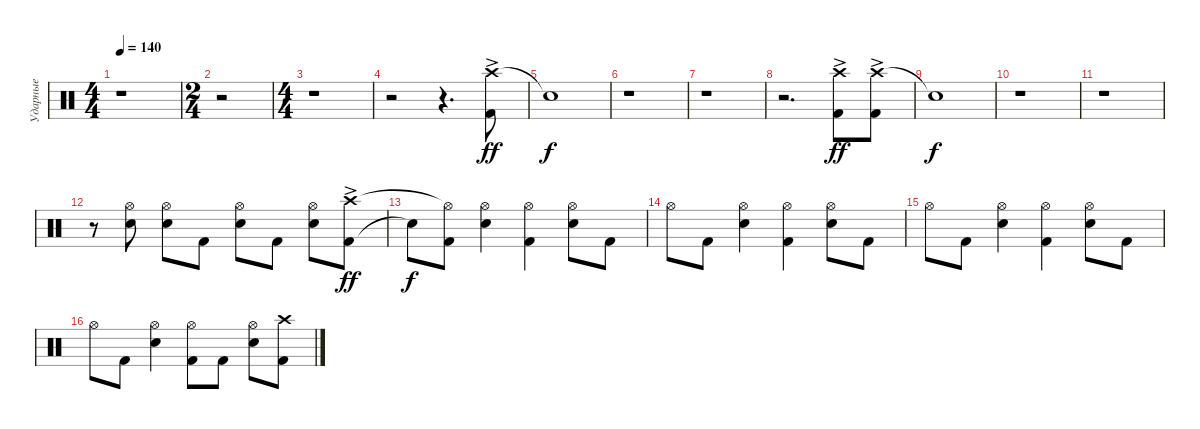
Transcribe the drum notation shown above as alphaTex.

\track ("Ударные" "Ударные") {instrument percussion}
\staff {score}
\articulation defaults
\ts (4 4)
\tempo 140
\clef neutral
\ks c
r.1{dy ff} |
\ts (2 4)
r.2 |
\ts (4 4)
r.1 |
r.2 r.4{d} ("Crash high (hit)"{ac} "Kick (hit) 2"{ac}).8 |
"Snare (hit)"{t}.1{dy f} |
r.1 |
r.1 |
r.2{d} ("Crash high (hit)"{ac} "Kick (hit) 2"{ac}).8{dy ff} ("Crash high (hit)"{ac} "Kick (hit) 2"{ac}).8 |
"Snare (hit)"{t}.1{dy f} |
r.1 |
r.1 |
r.8 ("Snare (hit) 2" "Hi-Hat (open)").8 ("Snare (hit) 2" "Hi-Hat (open)").8 "Kick (hit) 2".8 ("Hi-Hat (open)" "Snare (hit) 2").8 "Kick (hit) 2".8 ("Snare (hit) 2" "Hi-Hat (open)").8 ("Kick (hit) 2"{ac} "Crash high (hit)"{ac}).8{dy ff} |
"Snare (hit)"{t}.8{dy f} ("Kick (hit) 2" "Hi-Hat (open)"{t}).8 ("Snare (hit) 2" "Hi-Hat (open)").4 ("Kick (hit) 2" "Hi-Hat (open)").4 ("Snare (hit) 2" "Hi-Hat (open)").8 "Kick (hit) 2".8 |
"Hi-Hat (open)".8 "Kick (hit) 2".8 ("Snare (hit) 2" "Hi-Hat (open)").4 ("Kick (hit) 2" "Hi-Hat (open)").4 ("Snare (hit) 2" "Hi-Hat (open)").8 "Kick (hit) 2".8 |
"Hi-Hat (open)".8 "Kick (hit) 2".8 ("Snare (hit) 2" "Hi-Hat (open)").4 ("Kick (hit) 2" "Hi-Hat (open)").4 ("Snare (hit) 2" "Hi-Hat (open)").8 "Kick (hit) 2".8 |
"Hi-Hat (open)".8 "Kick (hit) 2".8 ("Snare (hit) 2" "Hi-Hat (open)").4 ("Kick (hit) 2" "Hi-Hat (open)").8 "Kick (hit) 2".8 ("Snare (hit) 2" "Hi-Hat (open)").8 ("Kick (hit) 2" "Crash high (hit)").8
